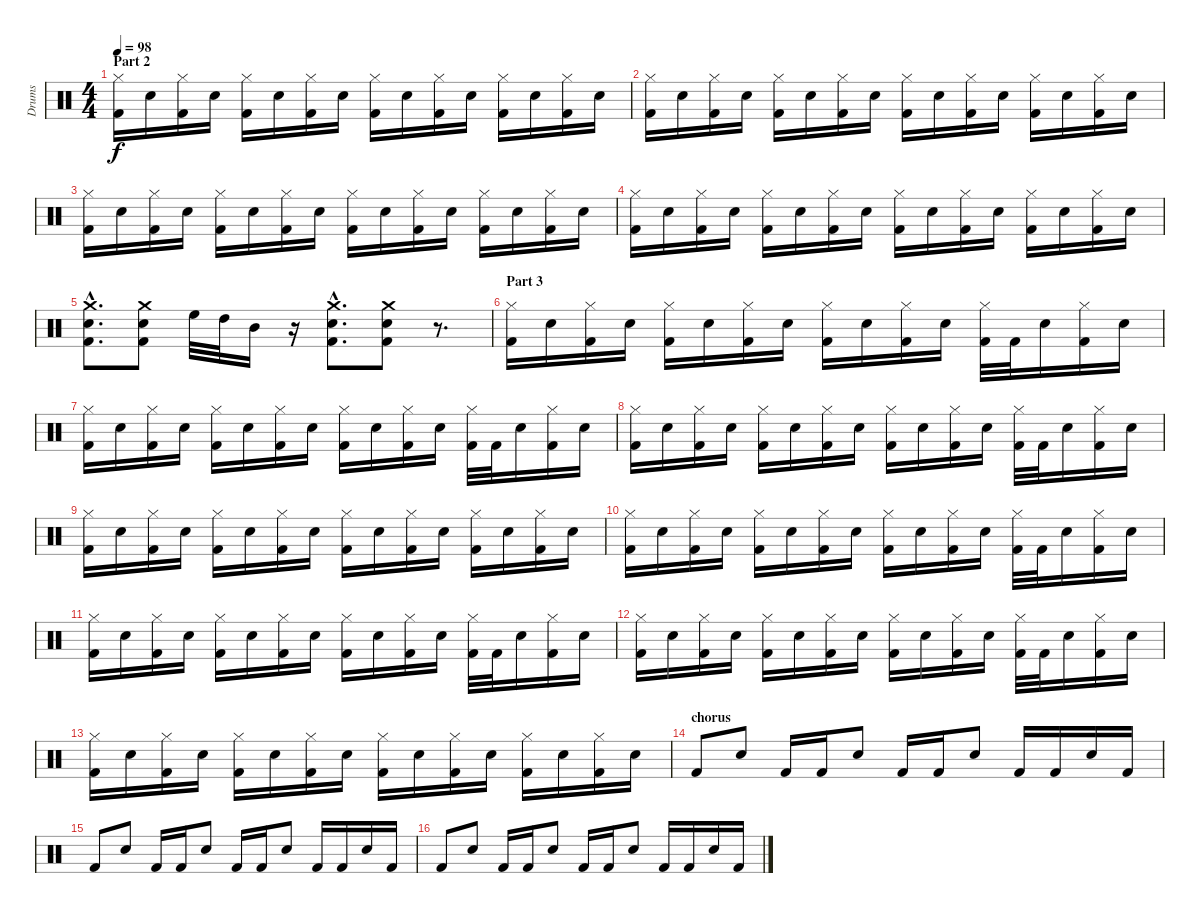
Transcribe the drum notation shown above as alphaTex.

\track ("Drums" "Drums") {instrument percussion}
\staff {score}
\articulation defaults
\ts (4 4)
\section ("" "Part 2")
\tempo 98
\clef neutral
\ks c
("Hi-Hat (closed)" "Kick (hit) 2").16{dy f} "Electric Snare (hit)".16 ("Hi-Hat (closed)" "Kick (hit) 2").16 "Electric Snare (hit)".16 ("Hi-Hat (closed)" "Kick (hit) 2").16 "Electric Snare (hit)".16 ("Hi-Hat (closed)" "Kick (hit) 2").16 "Electric Snare (hit)".16 ("Hi-Hat (closed)" "Kick (hit) 2").16 "Electric Snare (hit)".16 ("Hi-Hat (closed)" "Kick (hit) 2").16 "Electric Snare (hit)".16 ("Hi-Hat (closed)" "Kick (hit) 2").16 "Electric Snare (hit)".16 ("Hi-Hat (closed)" "Kick (hit) 2").16 "Electric Snare (hit)".16 |
("Hi-Hat (closed)" "Kick (hit) 2").16 "Electric Snare (hit)".16 ("Hi-Hat (closed)" "Kick (hit) 2").16 "Electric Snare (hit)".16 ("Hi-Hat (closed)" "Kick (hit) 2").16 "Electric Snare (hit)".16 ("Hi-Hat (closed)" "Kick (hit) 2").16 "Electric Snare (hit)".16 ("Hi-Hat (closed)" "Kick (hit) 2").16 "Electric Snare (hit)".16 ("Hi-Hat (closed)" "Kick (hit) 2").16 "Electric Snare (hit)".16 ("Hi-Hat (closed)" "Kick (hit) 2").16 "Electric Snare (hit)".16 ("Hi-Hat (closed)" "Kick (hit) 2").16 "Electric Snare (hit)".16 |
("Hi-Hat (closed)" "Kick (hit) 2").16 "Electric Snare (hit)".16 ("Hi-Hat (closed)" "Kick (hit) 2").16 "Electric Snare (hit)".16 ("Hi-Hat (closed)" "Kick (hit) 2").16 "Electric Snare (hit)".16 ("Hi-Hat (closed)" "Kick (hit) 2").16 "Electric Snare (hit)".16 ("Hi-Hat (closed)" "Kick (hit) 2").16 "Electric Snare (hit)".16 ("Hi-Hat (closed)" "Kick (hit) 2").16 "Electric Snare (hit)".16 ("Hi-Hat (closed)" "Kick (hit) 2").16 "Electric Snare (hit)".16 ("Hi-Hat (closed)" "Kick (hit) 2").16 "Electric Snare (hit)".16 |
("Hi-Hat (closed)" "Kick (hit) 2").16 "Electric Snare (hit)".16 ("Hi-Hat (closed)" "Kick (hit) 2").16 "Electric Snare (hit)".16 ("Hi-Hat (closed)" "Kick (hit) 2").16 "Electric Snare (hit)".16 ("Hi-Hat (closed)" "Kick (hit) 2").16 "Electric Snare (hit)".16 ("Hi-Hat (closed)" "Kick (hit) 2").16 "Electric Snare (hit)".16 ("Hi-Hat (closed)" "Kick (hit) 2").16 "Electric Snare (hit)".16 ("Hi-Hat (closed)" "Kick (hit) 2").16 "Electric Snare (hit)".16 ("Hi-Hat (closed)" "Kick (hit) 2").16 "Electric Snare (hit)".16 |
("Crash medium (hit)"{hac} "Electric Snare (hit)"{hac} "Kick (hit) 2"{hac}).8{d} ("Crash medium (hit)" "Electric Snare (hit)" "Kick (hit) 2").8 "High Floor Tom (hit)".32 "High Tom (hit)".32 "Mid Tom (hit)".16 r.16 ("Crash medium (hit)"{hac} "Electric Snare (hit)"{hac} "Kick (hit) 2"{hac}).8{d} ("Crash medium (hit)" "Electric Snare (hit)" "Kick (hit) 2").8 r.8{d} |
\section ("" "Part 3")
("Hi-Hat (closed)" "Kick (hit) 2").16 "Electric Snare (hit)".16 ("Hi-Hat (closed)" "Kick (hit) 2").16 "Electric Snare (hit)".16 ("Hi-Hat (closed)" "Kick (hit) 2").16 "Electric Snare (hit)".16 ("Hi-Hat (closed)" "Kick (hit) 2").16 "Electric Snare (hit)".16 ("Hi-Hat (closed)" "Kick (hit) 2").16 "Electric Snare (hit)".16 ("Hi-Hat (closed)" "Kick (hit) 2").16 "Electric Snare (hit)".16 ("Hi-Hat (closed)" "Kick (hit) 2").32 "Kick (hit) 2".32 "Electric Snare (hit)".16 ("Hi-Hat (closed)" "Kick (hit) 2").16 "Electric Snare (hit)".16 |
("Hi-Hat (closed)" "Kick (hit) 2").16 "Electric Snare (hit)".16 ("Hi-Hat (closed)" "Kick (hit) 2").16 "Electric Snare (hit)".16 ("Hi-Hat (closed)" "Kick (hit) 2").16 "Electric Snare (hit)".16 ("Hi-Hat (closed)" "Kick (hit) 2").16 "Electric Snare (hit)".16 ("Hi-Hat (closed)" "Kick (hit) 2").16 "Electric Snare (hit)".16 ("Hi-Hat (closed)" "Kick (hit) 2").16 "Electric Snare (hit)".16 ("Hi-Hat (closed)" "Kick (hit) 2").32 "Kick (hit) 2".32 "Electric Snare (hit)".16 ("Hi-Hat (closed)" "Kick (hit) 2").16 "Electric Snare (hit)".16 |
("Hi-Hat (closed)" "Kick (hit) 2").16 "Electric Snare (hit)".16 ("Hi-Hat (closed)" "Kick (hit) 2").16 "Electric Snare (hit)".16 ("Hi-Hat (closed)" "Kick (hit) 2").16 "Electric Snare (hit)".16 ("Hi-Hat (closed)" "Kick (hit) 2").16 "Electric Snare (hit)".16 ("Hi-Hat (closed)" "Kick (hit) 2").16 "Electric Snare (hit)".16 ("Hi-Hat (closed)" "Kick (hit) 2").16 "Electric Snare (hit)".16 ("Hi-Hat (closed)" "Kick (hit) 2").32 "Kick (hit) 2".32 "Electric Snare (hit)".16 ("Hi-Hat (closed)" "Kick (hit) 2").16 "Electric Snare (hit)".16 |
("Hi-Hat (closed)" "Kick (hit) 2").16 "Electric Snare (hit)".16 ("Hi-Hat (closed)" "Kick (hit) 2").16 "Electric Snare (hit)".16 ("Hi-Hat (closed)" "Kick (hit) 2").16 "Electric Snare (hit)".16 ("Hi-Hat (closed)" "Kick (hit) 2").16 "Electric Snare (hit)".16 ("Hi-Hat (closed)" "Kick (hit) 2").16 "Electric Snare (hit)".16 ("Hi-Hat (closed)" "Kick (hit) 2").16 "Electric Snare (hit)".16 ("Hi-Hat (closed)" "Kick (hit) 2").16 "Electric Snare (hit)".16 ("Hi-Hat (closed)" "Kick (hit) 2").16 "Electric Snare (hit)".16 |
("Hi-Hat (closed)" "Kick (hit) 2").16 "Electric Snare (hit)".16 ("Hi-Hat (closed)" "Kick (hit) 2").16 "Electric Snare (hit)".16 ("Hi-Hat (closed)" "Kick (hit) 2").16 "Electric Snare (hit)".16 ("Hi-Hat (closed)" "Kick (hit) 2").16 "Electric Snare (hit)".16 ("Hi-Hat (closed)" "Kick (hit) 2").16 "Electric Snare (hit)".16 ("Hi-Hat (closed)" "Kick (hit) 2").16 "Electric Snare (hit)".16 ("Hi-Hat (closed)" "Kick (hit) 2").32 "Kick (hit) 2".32 "Electric Snare (hit)".16 ("Hi-Hat (closed)" "Kick (hit) 2").16 "Electric Snare (hit)".16 |
("Hi-Hat (closed)" "Kick (hit) 2").16 "Electric Snare (hit)".16 ("Hi-Hat (closed)" "Kick (hit) 2").16 "Electric Snare (hit)".16 ("Hi-Hat (closed)" "Kick (hit) 2").16 "Electric Snare (hit)".16 ("Hi-Hat (closed)" "Kick (hit) 2").16 "Electric Snare (hit)".16 ("Hi-Hat (closed)" "Kick (hit) 2").16 "Electric Snare (hit)".16 ("Hi-Hat (closed)" "Kick (hit) 2").16 "Electric Snare (hit)".16 ("Hi-Hat (closed)" "Kick (hit) 2").32 "Kick (hit) 2".32 "Electric Snare (hit)".16 ("Hi-Hat (closed)" "Kick (hit) 2").16 "Electric Snare (hit)".16 |
("Hi-Hat (closed)" "Kick (hit) 2").16 "Electric Snare (hit)".16 ("Hi-Hat (closed)" "Kick (hit) 2").16 "Electric Snare (hit)".16 ("Hi-Hat (closed)" "Kick (hit) 2").16 "Electric Snare (hit)".16 ("Hi-Hat (closed)" "Kick (hit) 2").16 "Electric Snare (hit)".16 ("Hi-Hat (closed)" "Kick (hit) 2").16 "Electric Snare (hit)".16 ("Hi-Hat (closed)" "Kick (hit) 2").16 "Electric Snare (hit)".16 ("Hi-Hat (closed)" "Kick (hit) 2").32 "Kick (hit) 2".32 "Electric Snare (hit)".16 ("Hi-Hat (closed)" "Kick (hit) 2").16 "Electric Snare (hit)".16 |
("Hi-Hat (closed)" "Kick (hit) 2").16 "Electric Snare (hit)".16 ("Hi-Hat (closed)" "Kick (hit) 2").16 "Electric Snare (hit)".16 ("Hi-Hat (closed)" "Kick (hit) 2").16 "Electric Snare (hit)".16 ("Hi-Hat (closed)" "Kick (hit) 2").16 "Electric Snare (hit)".16 ("Hi-Hat (closed)" "Kick (hit) 2").16 "Electric Snare (hit)".16 ("Hi-Hat (closed)" "Kick (hit) 2").16 "Electric Snare (hit)".16 ("Hi-Hat (closed)" "Kick (hit) 2").16 "Electric Snare (hit)".16 ("Hi-Hat (closed)" "Kick (hit) 2").16 "Electric Snare (hit)".16 |
\section ("" "chorus")
"Kick (hit) 2".8 "Electric Snare (hit)".8 "Kick (hit) 2".16 "Kick (hit) 2".16 "Electric Snare (hit)".8 "Kick (hit) 2".16 "Kick (hit) 2".16 "Electric Snare (hit)".8 "Kick (hit) 2".16 "Kick (hit) 2".16 "Electric Snare (hit)".16 "Kick (hit) 2".16 |
"Kick (hit) 2".8 "Electric Snare (hit)".8 "Kick (hit) 2".16 "Kick (hit) 2".16 "Electric Snare (hit)".8 "Kick (hit) 2".16 "Kick (hit) 2".16 "Electric Snare (hit)".8 "Kick (hit) 2".16 "Kick (hit) 2".16 "Electric Snare (hit)".16 "Kick (hit) 2".16 |
"Kick (hit) 2".8 "Electric Snare (hit)".8 "Kick (hit) 2".16 "Kick (hit) 2".16 "Electric Snare (hit)".8 "Kick (hit) 2".16 "Kick (hit) 2".16 "Electric Snare (hit)".8 "Kick (hit) 2".16 "Kick (hit) 2".16 "Electric Snare (hit)".16 "Kick (hit) 2".16
